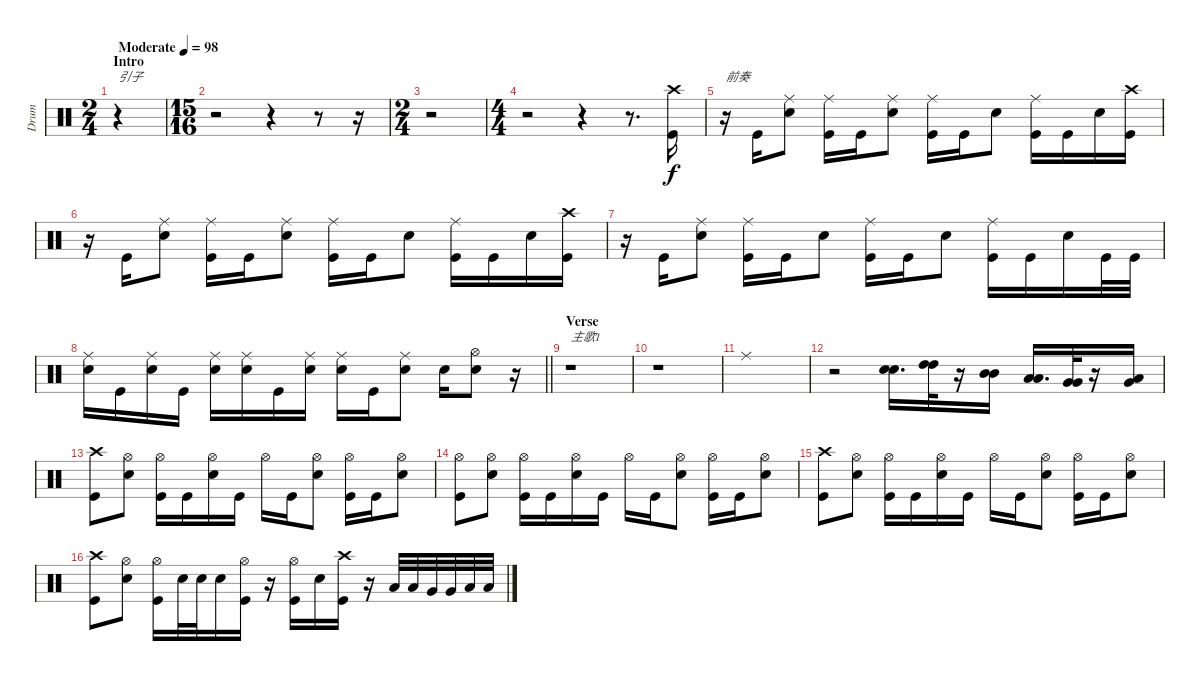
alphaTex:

\track ("Drum" "Drum") {instrument percussion}
\staff {score}
\articulation defaults
\ts (2 4)
\section ("" "Intro")
\tempo (98 "Moderate")
\clef neutral
\ks c
r.4{txt "引子" dy f} |
\ts (15 16)
r.2 r.4 r.8 r.16 |
\ts (2 4)
r.2 |
\ts (4 4)
r.2 r.4 r.8{d} ("Crash high (hit)" "Kick (hit)").16 |
r.16{txt "前奏"} "Kick (hit)".16 ("Snare (hit) 2" "Ride (middle)").8 ("Kick (hit)" "Ride (middle)").16 "Kick (hit)".16 ("Snare (hit) 2" "Ride (middle)").8 ("Ride (middle)" "Kick (hit)").16 "Kick (hit)".16 "Snare (hit) 2".8 ("Ride (middle)" "Kick (hit)").16 "Kick (hit)".16 "Snare (hit) 2".16 ("Crash high (hit)" "Kick (hit)").16 |
r.16 "Kick (hit)".16 ("Snare (hit) 2" "Ride (middle)").8 ("Kick (hit)" "Ride (middle)").16 "Kick (hit)".16 ("Snare (hit) 2" "Ride (middle)").8 ("Ride (middle)" "Kick (hit)").16 "Kick (hit)".16 "Snare (hit) 2".8 ("Ride (middle)" "Kick (hit)").16 "Kick (hit)".16 "Snare (hit) 2".16 ("Crash high (hit)" "Kick (hit)").16 |
r.16 "Kick (hit)".16 ("Snare (hit) 2" "Ride (middle)").8 ("Kick (hit)" "Ride (middle)").16 "Kick (hit)".16 "Snare (hit) 2".8 ("Ride (middle)" "Kick (hit)").16 "Kick (hit)".16 "Snare (hit) 2".8 ("Ride (middle)" "Kick (hit)").16 "Kick (hit)".16 "Snare (hit) 2".16 "Kick (hit)".32 "Kick (hit)".32 |
\barLineRight lightlight
("Snare (hit) 2" "Ride (middle)").16 "Kick (hit)".16 ("Snare (hit) 2" "Ride (middle)").16 "Kick (hit)".16 ("Snare (hit) 2" "Ride (middle)").16 ("Snare (hit) 2" "Ride (middle)").16 "Kick (hit)".16 ("Snare (hit) 2" "Ride (middle)").16 ("Snare (hit) 2" "Ride (middle)").16 "Kick (hit)".16 ("Snare (hit) 2" "Ride (middle)").8 "Snare (hit) 2".16 ("Snare (hit) 2" "Hi-Hat (open)").8 r.16 |
\section ("" "Verse")
r.1{txt "主歌1"} |
r.1 |
"Ride (middle)".1 |
r.2 ("Snare (hit) 2" "Snare (hit) 2").16{d} ("High Tom (hit)" "High Tom (hit)").32 r.16 ("Mid Tom (hit)" "Mid Tom (hit)").16 ("Low Tom (hit)" "Low Tom (hit)").16{d} ("Very Low Tom (hit)" "Very Low Tom (hit)").32 r.16 ("Very Low Tom (hit)" "Low Floor Tom (hit)").16 |
("Crash high (hit)" "Kick (hit)").8 ("Snare (hit) 2" "Hi-Hat (open)").8 ("Kick (hit)" "Hi-Hat (open)").16 "Kick (hit)".16 ("Snare (hit) 2" "Hi-Hat (open)").16 "Kick (hit)".16 "Hi-Hat (open)".16 "Kick (hit)".16 ("Snare (hit) 2" "Hi-Hat (open)").8 ("Kick (hit)" "Hi-Hat (open)").16 "Kick (hit)".16 ("Snare (hit) 2" "Hi-Hat (open)").8 |
("Hi-Hat (open)" "Kick (hit)").8 ("Snare (hit) 2" "Hi-Hat (open)").8 ("Kick (hit)" "Hi-Hat (open)").16 "Kick (hit)".16 ("Snare (hit) 2" "Hi-Hat (open)").16 "Kick (hit)".16 "Hi-Hat (open)".16 "Kick (hit)".16 ("Snare (hit) 2" "Hi-Hat (open)").8 ("Kick (hit)" "Hi-Hat (open)").16 "Kick (hit)".16 ("Snare (hit) 2" "Hi-Hat (open)").8 |
("Crash high (hit)" "Kick (hit)").8 ("Snare (hit) 2" "Hi-Hat (open)").8 ("Kick (hit)" "Hi-Hat (open)").16 "Kick (hit)".16 ("Snare (hit) 2" "Hi-Hat (open)").16 "Kick (hit)".16 "Hi-Hat (open)".16 "Kick (hit)".16 ("Snare (hit) 2" "Hi-Hat (open)").8 ("Kick (hit)" "Hi-Hat (open)").16 "Kick (hit)".16 ("Snare (hit) 2" "Hi-Hat (open)").8 |
("Crash high (hit)" "Kick (hit)").8 ("Snare (hit) 2" "Hi-Hat (open)").8 ("Kick (hit)" "Hi-Hat (open)").16 "Snare (hit) 2".32 "Snare (hit) 2".32 "Snare (hit) 2".16 ("Kick (hit)" "Hi-Hat (open)").16 r.16 ("Hi-Hat (open)" "Kick (hit)").16 "Snare (hit) 2".16 ("Kick (hit)" "Crash high (hit)").16 r.16 "Low Tom (hit)".32 "Low Tom (hit)".32 "Very Low Tom (hit)".32 "Very Low Tom (hit)".32 "Low Floor Tom (hit)".32 "Low Floor Tom (hit)".32
